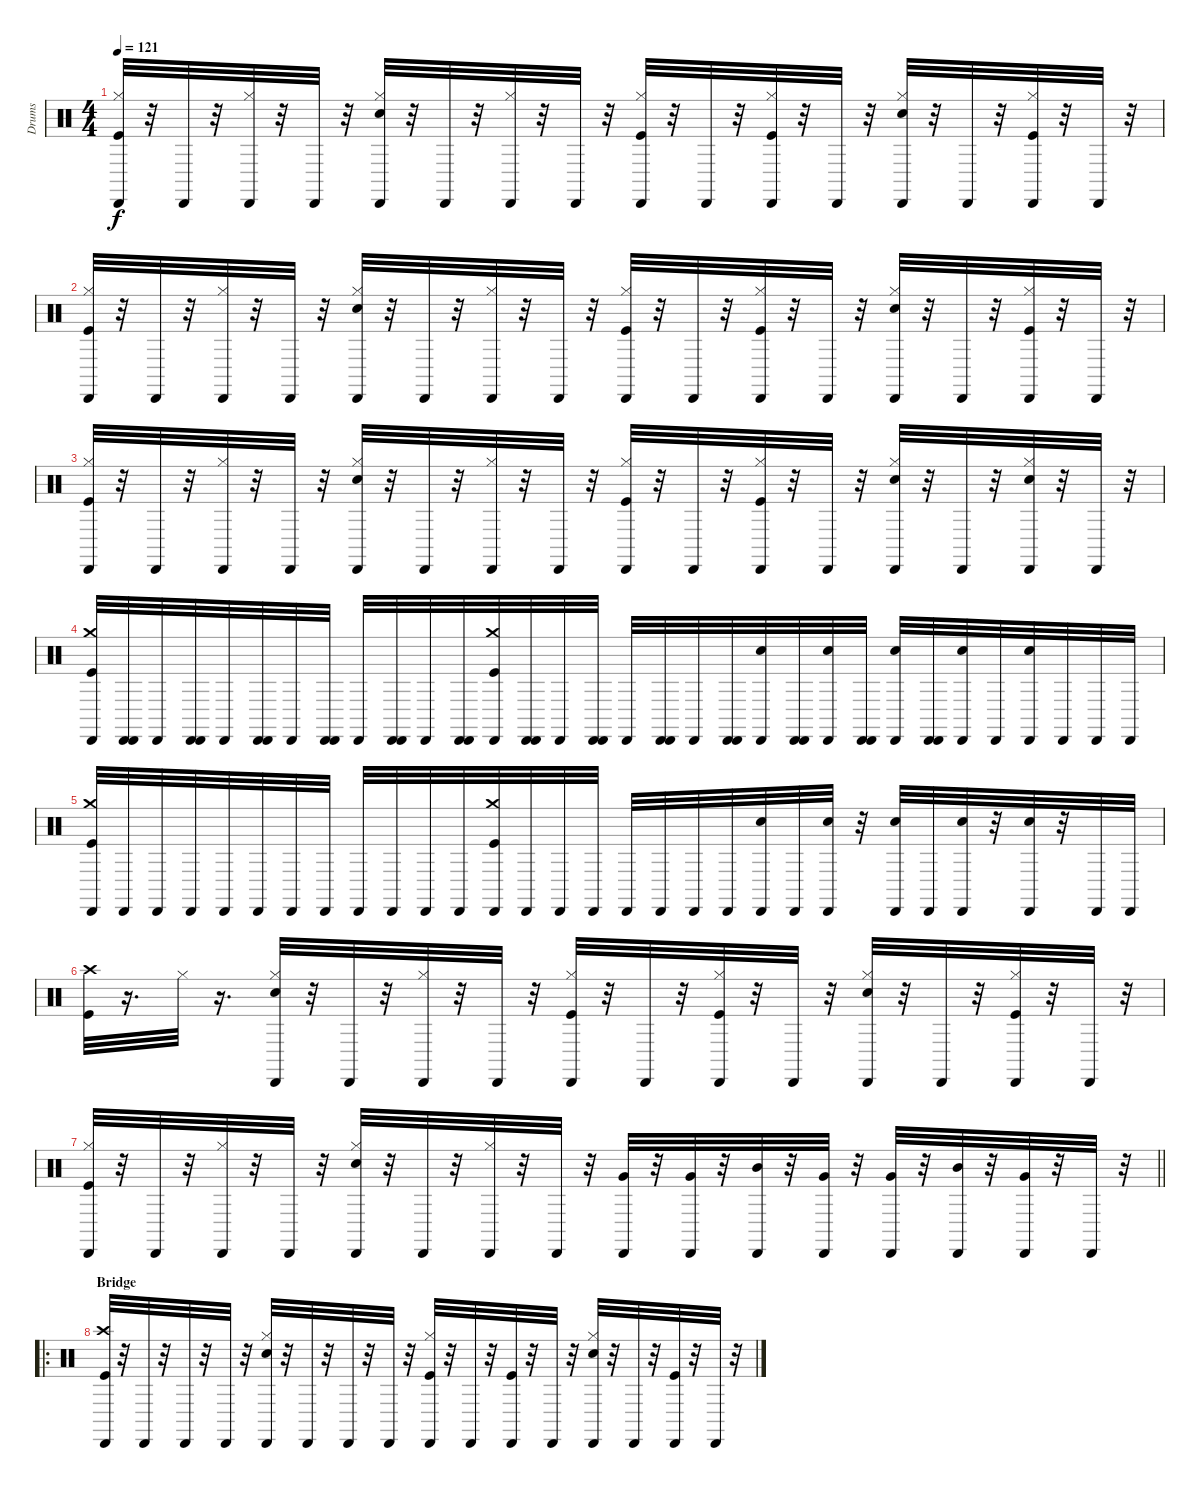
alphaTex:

\track ("Drums" "Drums") {instrument percussion}
\staff {score}
\articulation defaults
\ts (4 4)
\tempo 121
\clef neutral
\ks c
("Hi-Hat (closed)" "Cabasa (hit)" "Kick (hit)").32{dy f} r.32 "Cabasa (hit)".32 r.32 ("Hi-Hat (closed)" "Cabasa (hit)").32 r.32 "Cabasa (hit)".32 r.32 ("Hi-Hat (closed)" "Snare (hit) 2" "Cabasa (hit)").32 r.32 "Cabasa (hit)".32 r.32 ("Hi-Hat (closed)" "Cabasa (hit)").32 r.32 "Cabasa (hit)".32 r.32 ("Hi-Hat (closed)" "Cabasa (hit)" "Kick (hit)").32 r.32 "Cabasa (hit)".32 r.32 ("Hi-Hat (closed)" "Cabasa (hit)" "Kick (hit)").32 r.32 "Cabasa (hit)".32 r.32 ("Hi-Hat (closed)" "Snare (hit) 2" "Cabasa (hit)").32 r.32 "Cabasa (hit)".32 r.32 ("Hi-Hat (closed)" "Kick (hit)" "Cabasa (hit)").32 r.32 "Cabasa (hit)".32 r.32 |
("Hi-Hat (closed)" "Kick (hit)" "Cabasa (hit)").32 r.32 "Cabasa (hit)".32 r.32 ("Hi-Hat (closed)" "Cabasa (hit)").32 r.32 "Cabasa (hit)".32 r.32 ("Hi-Hat (closed)" "Cabasa (hit)" "Snare (hit) 2").32 r.32 "Cabasa (hit)".32 r.32 ("Hi-Hat (closed)" "Cabasa (hit)").32 r.32 "Cabasa (hit)".32 r.32 ("Hi-Hat (closed)" "Cabasa (hit)" "Kick (hit)").32 r.32 "Cabasa (hit)".32 r.32 ("Hi-Hat (closed)" "Cabasa (hit)" "Kick (hit)").32 r.32 "Cabasa (hit)".32 r.32 ("Hi-Hat (closed)" "Cabasa (hit)" "Snare (hit) 2").32 r.32 "Cabasa (hit)".32 r.32 ("Hi-Hat (closed)" "Kick (hit)" "Cabasa (hit)").32 r.32 "Cabasa (hit)".32 r.32 |
("Hi-Hat (closed)" "Kick (hit)" "Cabasa (hit)").32 r.32 "Cabasa (hit)".32 r.32 ("Hi-Hat (closed)" "Cabasa (hit)").32 r.32 "Cabasa (hit)".32 r.32 ("Hi-Hat (closed)" "Cabasa (hit)" "Snare (hit) 2").32 r.32 "Cabasa (hit)".32 r.32 ("Hi-Hat (closed)" "Cabasa (hit)").32 r.32 "Cabasa (hit)".32 r.32 ("Hi-Hat (closed)" "Kick (hit)" "Cabasa (hit)").32 r.32 "Cabasa (hit)".32 r.32 ("Hi-Hat (closed)" "Kick (hit)" "Cabasa (hit)").32 r.32 "Cabasa (hit)".32 r.32 ("Hi-Hat (closed)" "Snare (hit) 2" "Cabasa (hit)").32 r.32 "Cabasa (hit)".32 r.32 ("Hi-Hat (closed)" "Snare (hit) 2" "Cabasa (hit)").32 r.32 "Cabasa (hit)".32 r.32 |
("Cabasa (hit)" "Crash medium (hit)" "Kick (hit)").32 ("Cabasa (hit)" "Cabasa (hit)").32 "Cabasa (hit)".32 ("Cabasa (hit)" "Cabasa (hit)").32 "Cabasa (hit)".32 ("Cabasa (hit)" "Cabasa (hit)").32 "Cabasa (hit)".32 ("Cabasa (hit)" "Cabasa (hit)").32 "Cabasa (hit)".32 ("Cabasa (hit)" "Cabasa (hit)").32 "Cabasa (hit)".32 ("Cabasa (hit)" "Cabasa (hit)").32 ("Kick (hit)" "Crash medium (hit)" "Cabasa (hit)").32 ("Cabasa (hit)" "Cabasa (hit)").32 "Cabasa (hit)".32 ("Cabasa (hit)" "Cabasa (hit)").32 "Cabasa (hit)".32 ("Cabasa (hit)" "Cabasa (hit)").32 "Cabasa (hit)".32 ("Cabasa (hit)" "Cabasa (hit)").32 ("Snare (hit) 2" "Cabasa (hit)").32 ("Cabasa (hit)" "Cabasa (hit)").32 ("Cabasa (hit)" "Snare (hit) 2").32 ("Cabasa (hit)" "Cabasa (hit)").32 ("Cabasa (hit)" "Snare (hit) 2").32 ("Cabasa (hit)" "Cabasa (hit)").32 ("Snare (hit) 2" "Cabasa (hit)").32 "Cabasa (hit)".32 ("Cabasa (hit)" "Snare (hit) 2").32 "Cabasa (hit)".32 "Cabasa (hit)".32 "Cabasa (hit)".32 |
("Kick (hit)" "Crash medium (hit)" "Cabasa (hit)").32 "Cabasa (hit)".32 "Cabasa (hit)".32 "Cabasa (hit)".32 "Cabasa (hit)".32 "Cabasa (hit)".32 "Cabasa (hit)".32 "Cabasa (hit)".32 "Cabasa (hit)".32 "Cabasa (hit)".32 "Cabasa (hit)".32 "Cabasa (hit)".32 ("Cabasa (hit)" "Kick (hit)" "Crash medium (hit)").32 "Cabasa (hit)".32 "Cabasa (hit)".32 "Cabasa (hit)".32 "Cabasa (hit)".32 "Cabasa (hit)".32 "Cabasa (hit)".32 "Cabasa (hit)".32 ("Cabasa (hit)" "Snare (hit) 2").32 "Cabasa (hit)".32 ("Cabasa (hit)" "Snare (hit) 2").32 r.32 ("Cabasa (hit)" "Snare (hit) 2").32 "Cabasa (hit)".32 ("Snare (hit) 2" "Cabasa (hit)").32 r.32 ("Cabasa (hit)" "Snare (hit) 2").32 r.32 "Cabasa (hit)".32 "Cabasa (hit)".32 |
("Kick (hit)" "Crash high (hit)").32 r.16{d} "Hi-Hat (closed)".32 r.16{d} ("Hi-Hat (closed)" "Snare (hit) 2" "Cabasa (hit)").32 r.32 "Cabasa (hit)".32 r.32 ("Hi-Hat (closed)" "Cabasa (hit)").32 r.32 "Cabasa (hit)".32 r.32 ("Hi-Hat (closed)" "Cabasa (hit)" "Kick (hit)").32 r.32 "Cabasa (hit)".32 r.32 ("Hi-Hat (closed)" "Cabasa (hit)" "Kick (hit)").32 r.32 "Cabasa (hit)".32 r.32 ("Hi-Hat (closed)" "Cabasa (hit)" "Snare (hit) 2").32 r.32 "Cabasa (hit)".32 r.32 ("Hi-Hat (closed)" "Cabasa (hit)" "Kick (hit)").32 r.32 "Cabasa (hit)".32 r.32 |
\barLineRight lightlight
("Hi-Hat (closed)" "Kick (hit)" "Cabasa (hit)").32 r.32 "Cabasa (hit)".32 r.32 ("Hi-Hat (closed)" "Cabasa (hit)").32 r.32 "Cabasa (hit)".32 r.32 ("Hi-Hat (closed)" "Snare (hit) 2" "Cabasa (hit)").32 r.32 "Cabasa (hit)".32 r.32 ("Hi-Hat (closed)" "Cabasa (hit)").32 r.32 "Cabasa (hit)".32 r.32 ("Very Low Tom (hit)" "Cabasa (hit)").32 r.32 ("Cabasa (hit)" "Very Low Tom (hit)").32 r.32 ("Mid Tom (hit)" "Cabasa (hit)").32 r.32 ("Very Low Tom (hit)" "Cabasa (hit)").32 r.32 ("Cabasa (hit)" "Very Low Tom (hit)").32 r.32 ("Cabasa (hit)" "Mid Tom (hit)").32 r.32 ("Cabasa (hit)" "Very Low Tom (hit)").32 r.32 "Cabasa (hit)".32 r.32 |
\ro
\section ("" "Bridge")
("Kick (hit)" "Crash high (hit)" "Cabasa (hit)").32 r.32 "Cabasa (hit)".32 r.32 "Cabasa (hit)".32 r.32 "Cabasa (hit)".32 r.32 ("Hi-Hat (closed)" "Snare (hit) 2" "Cabasa (hit)").32 r.32 "Cabasa (hit)".32 r.32 "Cabasa (hit)".32 r.32 "Cabasa (hit)".32 r.32 ("Hi-Hat (closed)" "Cabasa (hit)" "Kick (hit)").32 r.32 "Cabasa (hit)".32 r.32 ("Cabasa (hit)" "Kick (hit)").32 r.32 "Cabasa (hit)".32 r.32 ("Hi-Hat (closed)" "Snare (hit) 2" "Cabasa (hit)").32 r.32 "Cabasa (hit)".32 r.32 ("Cabasa (hit)" "Kick (hit)").32 r.32 "Cabasa (hit)".32 r.32
